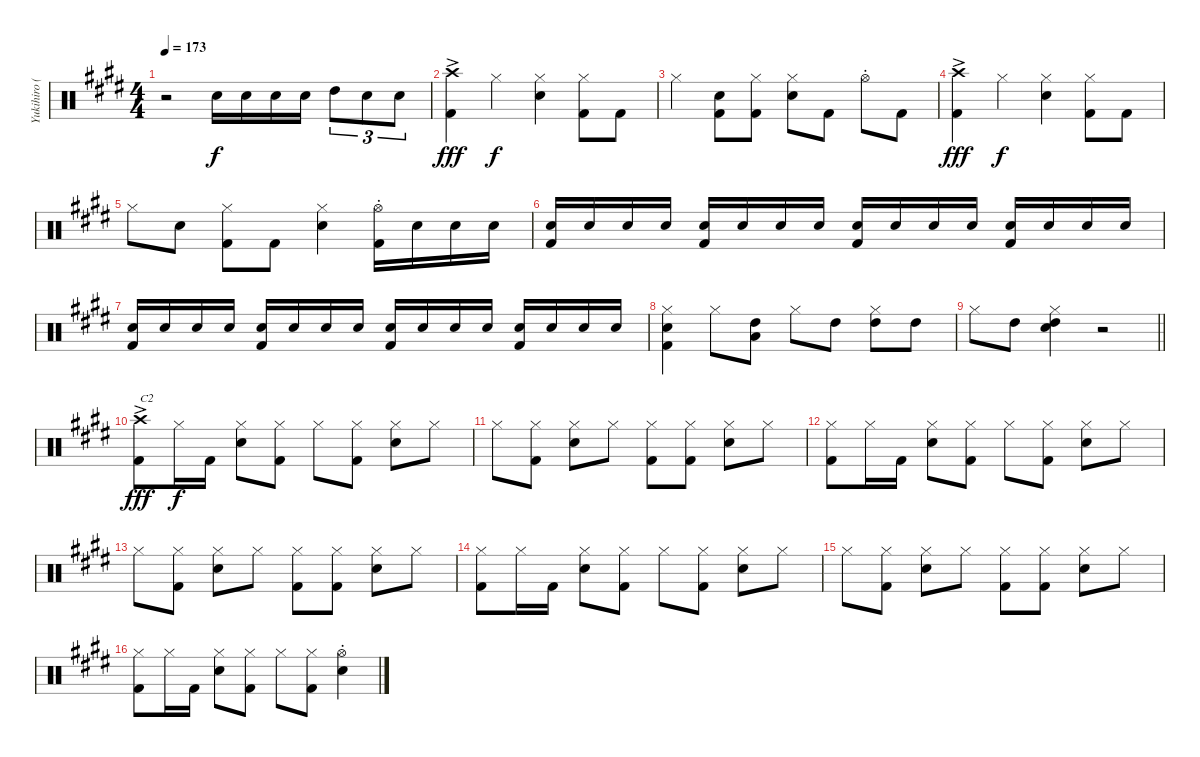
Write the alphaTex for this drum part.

\track ("Yukihiro (Drums)" "Yukihiro (") {instrument percussion}
\staff {score}
\articulation defaults
\ts (4 4)
\tempo 173
\clef neutral
\ks e
r.2{dy fff} "Electric Snare (hit)".16{dy f} "Electric Snare (hit)".16 "Electric Snare (hit)".16 "Electric Snare (hit)".16 "High Tom (hit)".8{tu (3 2)} "Electric Snare (hit)".8{tu (3 2)} "Electric Snare (hit)".8{tu (3 2)} |
("Crash high (hit)"{ac} "Kick (hit) 2").4{dy fff} "Hi-Hat (closed)".4{dy f} ("Hi-Hat (closed)" "Electric Snare (hit)").4 ("Hi-Hat (closed)" "Kick (hit) 2").8 "Kick (hit) 2".8 |
"Hi-Hat (closed)".4 ("Electric Snare (hit)" "Kick (hit) 2").8 ("Hi-Hat (closed)" "Kick (hit) 2").8 ("Hi-Hat (closed)" "Electric Snare (hit)").8 "Kick (hit) 2".8 "Hi-Hat (open)"{st}.8 "Kick (hit) 2".8 |
("Crash high (hit)"{ac} "Kick (hit) 2").4{dy fff} "Hi-Hat (closed)".4{dy f} ("Hi-Hat (closed)" "Electric Snare (hit)").4 ("Hi-Hat (closed)" "Kick (hit) 2").8 "Kick (hit) 2".8 |
"Hi-Hat (closed)".8 "Electric Snare (hit)".8 ("Hi-Hat (closed)" "Kick (hit) 2").8 "Kick (hit) 2".8 ("Hi-Hat (closed)" "Electric Snare (hit)").4 ("Hi-Hat (open)"{st} "Kick (hit) 2").16 "Electric Snare (hit)".16 "Electric Snare (hit)".16 "Electric Snare (hit)".16 |
("Electric Snare (hit)" "Kick (hit) 2").16 "Electric Snare (hit)".16 "Electric Snare (hit)".16 "Electric Snare (hit)".16 ("Electric Snare (hit)" "Kick (hit) 2").16 "Electric Snare (hit)".16 "Electric Snare (hit)".16 "Electric Snare (hit)".16 ("Electric Snare (hit)" "Kick (hit) 2").16 "Electric Snare (hit)".16 "Electric Snare (hit)".16 "Electric Snare (hit)".16 ("Electric Snare (hit)" "Kick (hit) 2").16 "Electric Snare (hit)".16 "Electric Snare (hit)".16 "Electric Snare (hit)".16 |
("Electric Snare (hit)" "Kick (hit) 2").16 "Electric Snare (hit)".16 "Electric Snare (hit)".16 "Electric Snare (hit)".16 ("Electric Snare (hit)" "Kick (hit) 2").16 "Electric Snare (hit)".16 "Electric Snare (hit)".16 "Electric Snare (hit)".16 ("Electric Snare (hit)" "Kick (hit) 2").16 "Electric Snare (hit)".16 "Electric Snare (hit)".16 "Electric Snare (hit)".16 ("Electric Snare (hit)" "Kick (hit) 2").16 "Electric Snare (hit)".16 "Electric Snare (hit)".16 "Electric Snare (hit)".16 |
("Hi-Hat (closed)" "Electric Snare (hit)" "Kick (hit) 2").4 "Hi-Hat (closed)".8 ("High Tom (hit)" "Low Tom (hit)").8 "Hi-Hat (closed)".8 "High Tom (hit)".8 ("Hi-Hat (closed)" "High Tom (hit)").8 "High Tom (hit)".8 |
\barLineRight lightlight "Hi-Hat (closed)".8 "High Tom (hit)".8
("Hi-Hat (closed)" "Electric Snare (hit)" "High Tom (hit)").4 r.2 |
("Crash high (hit)"{ac} "Kick (hit) 2").8{txt "C2" dy fff} "Hi-Hat (closed)".16{dy f} "Kick (hit) 2".16 ("Hi-Hat (closed)" "Electric Snare (hit)").8 ("Hi-Hat (closed)" "Kick (hit) 2").8 "Hi-Hat (closed)".8 ("Hi-Hat (closed)" "Kick (hit) 2").8 ("Hi-Hat (closed)" "Electric Snare (hit)").8 "Hi-Hat (closed)".8 |
"Hi-Hat (closed)".8 ("Hi-Hat (closed)" "Kick (hit) 2").8 ("Hi-Hat (closed)" "Electric Snare (hit)").8 "Hi-Hat (closed)".8 ("Hi-Hat (closed)" "Kick (hit) 2").8 ("Hi-Hat (closed)" "Kick (hit) 2").8 ("Hi-Hat (closed)" "Electric Snare (hit)").8 "Hi-Hat (closed)".8 |
("Hi-Hat (closed)" "Kick (hit) 2").8 "Hi-Hat (closed)".16 "Kick (hit) 2".16 ("Hi-Hat (closed)" "Electric Snare (hit)").8 ("Hi-Hat (closed)" "Kick (hit) 2").8 "Hi-Hat (closed)".8 ("Hi-Hat (closed)" "Kick (hit) 2").8 ("Hi-Hat (closed)" "Electric Snare (hit)").8 "Hi-Hat (closed)".8 |
"Hi-Hat (closed)".8 ("Hi-Hat (closed)" "Kick (hit) 2").8 ("Hi-Hat (closed)" "Electric Snare (hit)").8 "Hi-Hat (closed)".8 ("Hi-Hat (closed)" "Kick (hit) 2").8 ("Hi-Hat (closed)" "Kick (hit) 2").8 ("Hi-Hat (closed)" "Electric Snare (hit)").8 "Hi-Hat (closed)".8 |
("Hi-Hat (closed)" "Kick (hit) 2").8 "Hi-Hat (closed)".16 "Kick (hit) 2".16 ("Hi-Hat (closed)" "Electric Snare (hit)").8 ("Hi-Hat (closed)" "Kick (hit) 2").8 "Hi-Hat (closed)".8 ("Hi-Hat (closed)" "Kick (hit) 2").8 ("Hi-Hat (closed)" "Electric Snare (hit)").8 "Hi-Hat (closed)".8 |
"Hi-Hat (closed)".8 ("Hi-Hat (closed)" "Kick (hit) 2").8 ("Hi-Hat (closed)" "Electric Snare (hit)").8 "Hi-Hat (closed)".8 ("Hi-Hat (closed)" "Kick (hit) 2").8 ("Hi-Hat (closed)" "Kick (hit) 2").8 ("Hi-Hat (closed)" "Electric Snare (hit)").8 "Hi-Hat (closed)".8 |
("Hi-Hat (closed)" "Kick (hit) 2").8 "Hi-Hat (closed)".16 "Kick (hit) 2".16 ("Hi-Hat (closed)" "Electric Snare (hit)").8 ("Hi-Hat (closed)" "Kick (hit) 2").8 "Hi-Hat (closed)".8 ("Hi-Hat (closed)" "Kick (hit) 2").8 ("Hi-Hat (open)"{st} "Electric Snare (hit)").4
